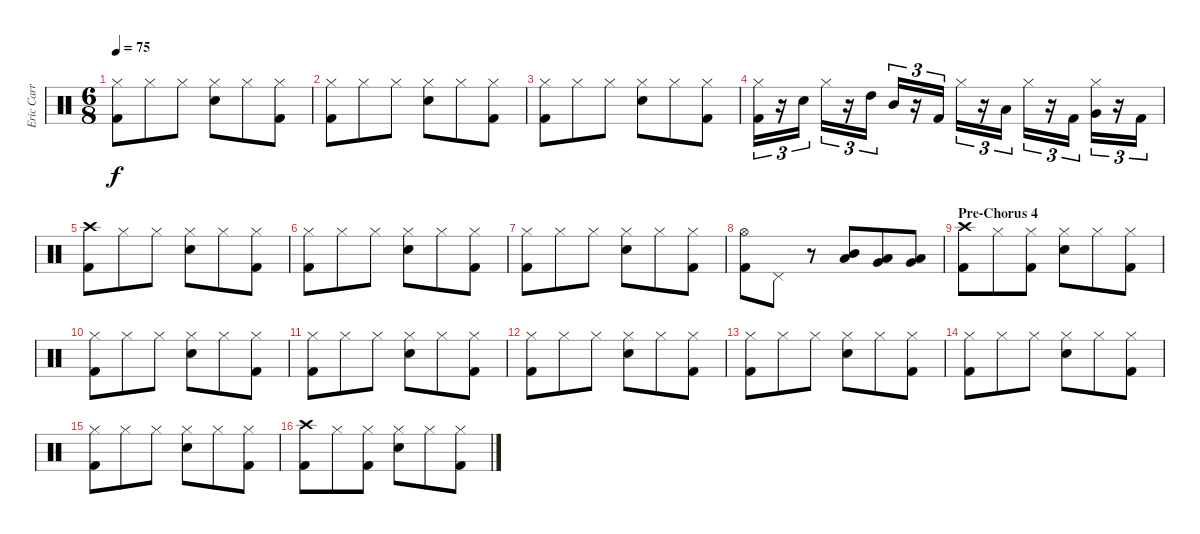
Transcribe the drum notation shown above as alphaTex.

\track ("Eric Carr" "Eric Carr") {instrument percussion}
\staff {score}
\articulation defaults
\ts (6 8)
\tempo 75
\clef neutral
\ks c
("Hi-Hat (closed)" "Kick (hit) 2").8{dy f} "Hi-Hat (closed)".8 "Hi-Hat (closed)".8 ("Hi-Hat (closed)" "Electric Snare (hit)").8 "Hi-Hat (closed)".8 ("Hi-Hat (closed)" "Kick (hit) 2").8 |
("Hi-Hat (closed)" "Kick (hit) 2").8 "Hi-Hat (closed)".8 "Hi-Hat (closed)".8 ("Hi-Hat (closed)" "Electric Snare (hit)").8 "Hi-Hat (closed)".8 ("Hi-Hat (closed)" "Kick (hit) 2").8 |
("Hi-Hat (closed)" "Kick (hit) 2").8 "Hi-Hat (closed)".8 "Hi-Hat (closed)".8 ("Hi-Hat (closed)" "Electric Snare (hit)").8 "Hi-Hat (closed)".8 ("Hi-Hat (closed)" "Kick (hit) 2").8 |
("Hi-Hat (closed)" "Kick (hit) 2").16{tu (3 2)} r.16{tu (3 2)} "Electric Snare (hit)".16{tu (3 2)} "Hi-Hat (closed)".16{tu (3 2)} r.16{tu (3 2)} "High Tom (hit)".16{tu (3 2)} "Mid Tom (hit)".16{tu (3 2)} r.16{tu (3 2)} "Kick (hit) 2".16{tu (3 2)} "Hi-Hat (closed)".16{tu (3 2)} r.16{tu (3 2)} "Low Tom (hit)".16{tu (3 2)} "Hi-Hat (closed)".16{tu (3 2)} r.16{tu (3 2)} "Kick (hit) 2".16{tu (3 2)} ("Hi-Hat (closed)" "Very Low Tom (hit)").16{tu (3 2)} r.16{tu (3 2)} "Kick (hit) 2".16{tu (3 2)} |
("Crash high (hit)" "Kick (hit) 2").8 "Hi-Hat (closed)".8 "Hi-Hat (closed)".8 ("Hi-Hat (closed)" "Electric Snare (hit)").8 "Hi-Hat (closed)".8 ("Hi-Hat (closed)" "Kick (hit) 2").8 |
("Hi-Hat (closed)" "Kick (hit) 2").8 "Hi-Hat (closed)".8 "Hi-Hat (closed)".8 ("Hi-Hat (closed)" "Electric Snare (hit)").8 "Hi-Hat (closed)".8 ("Hi-Hat (closed)" "Kick (hit) 2").8 |
("Hi-Hat (closed)" "Kick (hit) 2").8 "Hi-Hat (closed)".8 "Hi-Hat (closed)".8 ("Hi-Hat (closed)" "Electric Snare (hit)").8 "Hi-Hat (closed)".8 ("Hi-Hat (closed)" "Kick (hit) 2").8 |
("Hi-Hat (open)" "Kick (hit) 2").8 "Pedal Hi-Hat (hit)".8 r.8 ("Mid Tom (hit)" "Low Tom (hit)").8 ("Low Tom (hit)" "Very Low Tom (hit)").8 ("Very Low Tom (hit)" "Low Floor Tom (hit)").8 |
\section ("" "Pre-Chorus 4")
("Crash high (hit)" "Kick (hit) 2").8 "Hi-Hat (closed)".8 ("Hi-Hat (closed)" "Kick (hit) 2").8 ("Hi-Hat (closed)" "Electric Snare (hit)").8 "Hi-Hat (closed)".8 ("Hi-Hat (closed)" "Kick (hit) 2").8 |
("Hi-Hat (closed)" "Kick (hit) 2").8 "Hi-Hat (closed)".8 "Hi-Hat (closed)".8 ("Hi-Hat (closed)" "Electric Snare (hit)").8 "Hi-Hat (closed)".8 ("Hi-Hat (closed)" "Kick (hit) 2").8 |
("Hi-Hat (closed)" "Kick (hit) 2").8 "Hi-Hat (closed)".8 "Hi-Hat (closed)".8 ("Hi-Hat (closed)" "Electric Snare (hit)").8 "Hi-Hat (closed)".8 ("Hi-Hat (closed)" "Kick (hit) 2").8 |
("Hi-Hat (closed)" "Kick (hit) 2").8 "Hi-Hat (closed)".8 "Hi-Hat (closed)".8 ("Hi-Hat (closed)" "Electric Snare (hit)").8 "Hi-Hat (closed)".8 ("Hi-Hat (closed)" "Kick (hit) 2").8 |
("Hi-Hat (closed)" "Kick (hit) 2").8 "Hi-Hat (closed)".8 "Hi-Hat (closed)".8 ("Hi-Hat (closed)" "Electric Snare (hit)").8 "Hi-Hat (closed)".8 ("Hi-Hat (closed)" "Kick (hit) 2").8 |
("Hi-Hat (closed)" "Kick (hit) 2").8 "Hi-Hat (closed)".8 "Hi-Hat (closed)".8 ("Hi-Hat (closed)" "Electric Snare (hit)").8 "Hi-Hat (closed)".8 ("Hi-Hat (closed)" "Kick (hit) 2").8 |
("Hi-Hat (closed)" "Kick (hit) 2").8 "Hi-Hat (closed)".8 "Hi-Hat (closed)".8 ("Hi-Hat (closed)" "Electric Snare (hit)").8 "Hi-Hat (closed)".8 ("Hi-Hat (closed)" "Kick (hit) 2").8 |
("Crash high (hit)" "Kick (hit) 2").8 "Hi-Hat (closed)".8 ("Hi-Hat (closed)" "Kick (hit) 2").8 ("Hi-Hat (closed)" "Electric Snare (hit)").8 "Hi-Hat (closed)".8 ("Hi-Hat (closed)" "Kick (hit) 2").8
